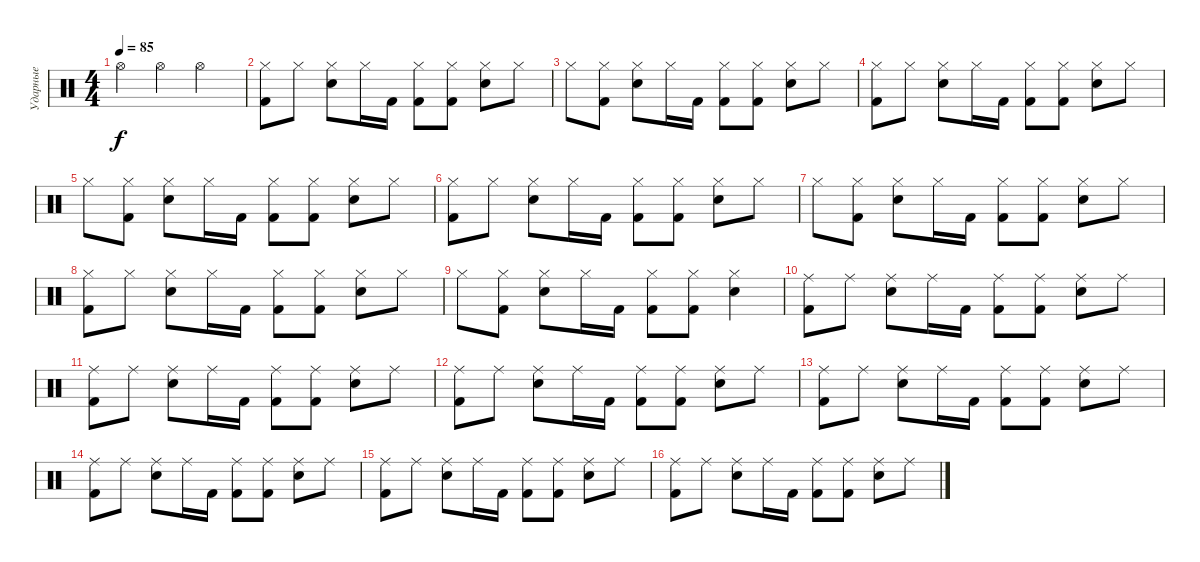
\track ("Ударные" "Ударные") {instrument percussion}
\staff {score}
\articulation defaults
\ts (4 4)
\tempo 85
\clef neutral
\ks c "Hi-Hat (open)".4{dy f} "Hi-Hat (open)".4 "Hi-Hat (open)".2
|
("Hi-Hat (closed)" "Kick (hit) 2").8 "Hi-Hat (closed)".8 ("Hi-Hat (closed)" "Snare (hit) 2").8 "Hi-Hat (closed)".16 "Kick (hit) 2".16 ("Hi-Hat (closed)" "Kick (hit) 2").8 ("Hi-Hat (closed)" "Kick (hit) 2").8 ("Hi-Hat (closed)" "Snare (hit) 2").8 "Hi-Hat (closed)".8 |
"Hi-Hat (closed)".8 ("Hi-Hat (closed)" "Kick (hit) 2").8 ("Hi-Hat (closed)" "Snare (hit) 2").8 "Hi-Hat (closed)".16 "Kick (hit) 2".16 ("Hi-Hat (closed)" "Kick (hit) 2").8 ("Hi-Hat (closed)" "Kick (hit) 2").8 ("Hi-Hat (closed)" "Snare (hit) 2").8 "Hi-Hat (closed)".8 |
("Hi-Hat (closed)" "Kick (hit) 2").8 "Hi-Hat (closed)".8 ("Hi-Hat (closed)" "Snare (hit) 2").8 "Hi-Hat (closed)".16 "Kick (hit) 2".16 ("Hi-Hat (closed)" "Kick (hit) 2").8 ("Hi-Hat (closed)" "Kick (hit) 2").8 ("Hi-Hat (closed)" "Snare (hit) 2").8 "Hi-Hat (closed)".8 |
"Hi-Hat (closed)".8 ("Hi-Hat (closed)" "Kick (hit) 2").8 ("Hi-Hat (closed)" "Snare (hit) 2").8 "Hi-Hat (closed)".16 "Kick (hit) 2".16 ("Hi-Hat (closed)" "Kick (hit) 2").8 ("Hi-Hat (closed)" "Kick (hit) 2").8 ("Hi-Hat (closed)" "Snare (hit) 2").8 "Hi-Hat (closed)".8 |
("Hi-Hat (closed)" "Kick (hit) 2").8 "Hi-Hat (closed)".8 ("Hi-Hat (closed)" "Snare (hit) 2").8 "Hi-Hat (closed)".16 "Kick (hit) 2".16 ("Hi-Hat (closed)" "Kick (hit) 2").8 ("Hi-Hat (closed)" "Kick (hit) 2").8 ("Hi-Hat (closed)" "Snare (hit) 2").8 "Hi-Hat (closed)".8 |
"Hi-Hat (closed)".8 ("Hi-Hat (closed)" "Kick (hit) 2").8 ("Hi-Hat (closed)" "Snare (hit) 2").8 "Hi-Hat (closed)".16 "Kick (hit) 2".16 ("Hi-Hat (closed)" "Kick (hit) 2").8 ("Hi-Hat (closed)" "Kick (hit) 2").8 ("Hi-Hat (closed)" "Snare (hit) 2").8 "Hi-Hat (closed)".8 |
("Hi-Hat (closed)" "Kick (hit) 2").8 "Hi-Hat (closed)".8 ("Hi-Hat (closed)" "Snare (hit) 2").8 "Hi-Hat (closed)".16 "Kick (hit) 2".16 ("Hi-Hat (closed)" "Kick (hit) 2").8 ("Hi-Hat (closed)" "Kick (hit) 2").8 ("Hi-Hat (closed)" "Snare (hit) 2").8 "Hi-Hat (closed)".8 |
"Hi-Hat (closed)".8 ("Hi-Hat (closed)" "Kick (hit) 2").8 ("Hi-Hat (closed)" "Snare (hit) 2").8 "Hi-Hat (closed)".16 "Kick (hit) 2".16 ("Hi-Hat (closed)" "Kick (hit) 2").8 ("Hi-Hat (closed)" "Kick (hit) 2").8 ("Hi-Hat (closed)" "Snare (hit) 2").4 |
("Ride (middle)" "Kick (hit) 2").8 "Ride (middle)".8 ("Ride (middle)" "Snare (hit) 2").8 "Ride (middle)".16 "Kick (hit) 2".16 ("Ride (middle)" "Kick (hit) 2").8 ("Ride (middle)" "Kick (hit) 2").8 ("Ride (middle)" "Snare (hit) 2").8 "Ride (middle)".8 |
("Ride (middle)" "Kick (hit) 2").8 "Ride (middle)".8 ("Ride (middle)" "Snare (hit) 2").8 "Ride (middle)".16 "Kick (hit) 2".16 ("Ride (middle)" "Kick (hit) 2").8 ("Ride (middle)" "Kick (hit) 2").8 ("Ride (middle)" "Snare (hit) 2").8 "Ride (middle)".8 |
("Ride (middle)" "Kick (hit) 2").8 "Ride (middle)".8 ("Ride (middle)" "Snare (hit) 2").8 "Ride (middle)".16 "Kick (hit) 2".16 ("Ride (middle)" "Kick (hit) 2").8 ("Ride (middle)" "Kick (hit) 2").8 ("Ride (middle)" "Snare (hit) 2").8 "Ride (middle)".8 |
("Ride (middle)" "Kick (hit) 2").8 "Ride (middle)".8 ("Ride (middle)" "Snare (hit) 2").8 "Ride (middle)".16 "Kick (hit) 2".16 ("Ride (middle)" "Kick (hit) 2").8 ("Ride (middle)" "Kick (hit) 2").8 ("Ride (middle)" "Snare (hit) 2").8 "Ride (middle)".8 |
("Ride (middle)" "Kick (hit) 2").8 "Ride (middle)".8 ("Ride (middle)" "Snare (hit) 2").8 "Ride (middle)".16 "Kick (hit) 2".16 ("Ride (middle)" "Kick (hit) 2").8 ("Ride (middle)" "Kick (hit) 2").8 ("Ride (middle)" "Snare (hit) 2").8 "Ride (middle)".8 |
("Ride (middle)" "Kick (hit) 2").8 "Ride (middle)".8 ("Ride (middle)" "Snare (hit) 2").8 "Ride (middle)".16 "Kick (hit) 2".16 ("Ride (middle)" "Kick (hit) 2").8 ("Ride (middle)" "Kick (hit) 2").8 ("Ride (middle)" "Snare (hit) 2").8 "Ride (middle)".8 |
("Ride (middle)" "Kick (hit) 2").8 "Ride (middle)".8 ("Ride (middle)" "Snare (hit) 2").8 "Ride (middle)".16 "Kick (hit) 2".16 ("Ride (middle)" "Kick (hit) 2").8 ("Ride (middle)" "Kick (hit) 2").8 ("Ride (middle)" "Snare (hit) 2").8 "Ride (middle)".8
